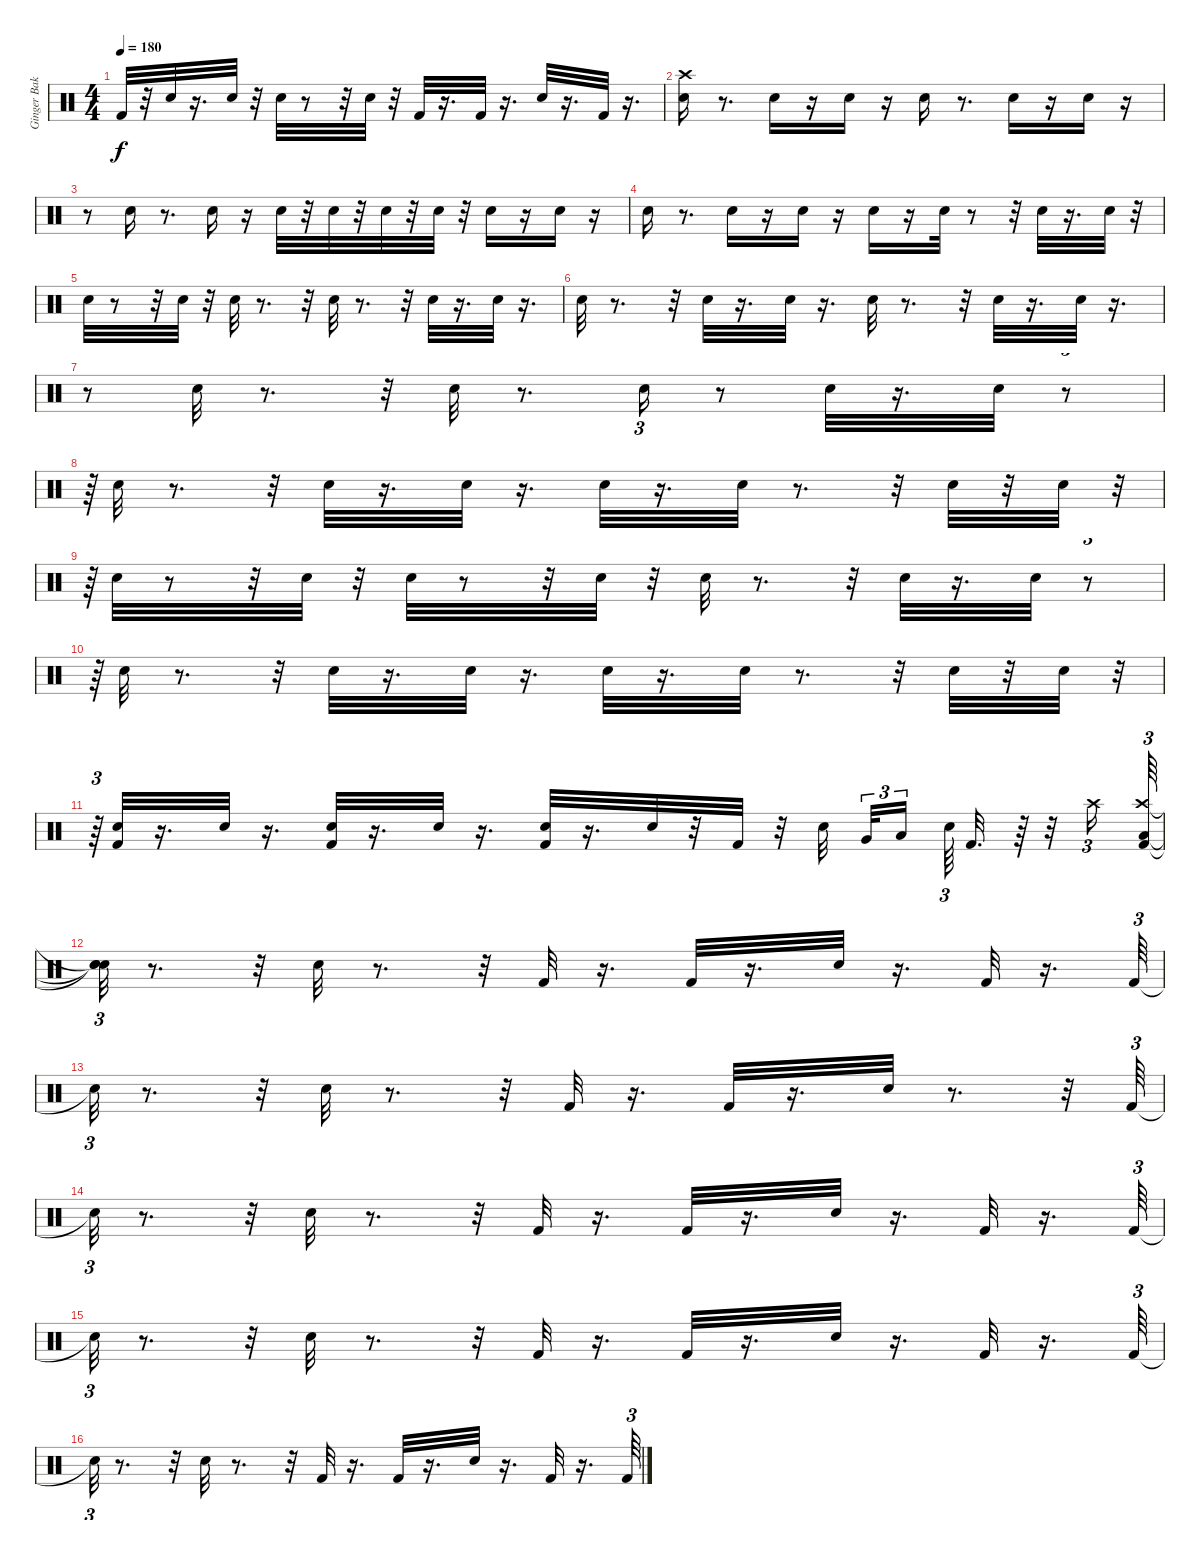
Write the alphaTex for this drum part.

\track ("Ginger Baker" "Ginger Bak") {instrument percussion}
\staff {score}
\articulation defaults
\ts (4 4)
\tempo 180
\clef neutral
\ks c "Kick (hit) 2".32{dy f}
r.32 "Snare (hit) 2".32 r.16{d} "Snare (hit) 2".32 r.32 "Snare (hit) 2".32 r.8 r.32 "Snare (hit) 2".32 r.32 "Kick (hit) 2".32 r.16{d} "Kick (hit) 2".32 r.16{d} "Snare (hit) 2".32 r.16{d} "Kick (hit) 2".32 r.16{d} |
("Snare (hit) 2" "Crash high (hit)").16 r.8{d} "Snare (hit) 2".16 r.16 "Snare (hit) 2".16 r.16 "Snare (hit) 2".16 r.8{d} "Snare (hit) 2".16 r.16 "Snare (hit) 2".16 r.16 |
r.8 "Snare (hit) 2".16 r.8{d} "Snare (hit) 2".16 r.16 "Snare (hit) 2".32 r.32 "Snare (hit) 2".32 r.32 "Snare (hit) 2".32 r.32 "Snare (hit) 2".32 r.32 "Snare (hit) 2".16 r.16 "Snare (hit) 2".16 r.16 |
"Snare (hit) 2".16 r.8{d} "Snare (hit) 2".16 r.16 "Snare (hit) 2".16 r.16 "Snare (hit) 2".16 r.16 "Snare (hit) 2".32 r.8 r.32 "Snare (hit) 2".32 r.16{d} "Snare (hit) 2".32 r.32 |
"Snare (hit) 2".32 r.8 r.32 "Snare (hit) 2".32 r.32 "Snare (hit) 2".32 r.8{d} r.32 "Snare (hit) 2".32 r.8{d} r.32 "Snare (hit) 2".32 r.16{d} "Snare (hit) 2".32 r.16{d} |
"Snare (hit) 2".32 r.8{d} r.32 "Snare (hit) 2".32 r.16{d} "Snare (hit) 2".32 r.16{d} "Snare (hit) 2".32 r.8{d} r.32 "Snare (hit) 2".32 r.16{d} "Snare (hit) 2".32 r.16{d} |
r.8 "Snare (hit) 2".32 r.8{d} r.32 "Snare (hit) 2".32 r.8{d} "Snare (hit) 2".16{tu (3 2)} r.8 "Snare (hit) 2".32 r.16{d} "Snare (hit) 2".32 r.8{tu (3 2)} |
r.64{tu (3 2)} "Snare (hit) 2".32 r.8{d} r.32 "Snare (hit) 2".32 r.16{d} "Snare (hit) 2".32 r.16{d} "Snare (hit) 2".32 r.16{d} "Snare (hit) 2".32 r.8{d} r.32 "Snare (hit) 2".32 r.32 "Snare (hit) 2".32 r.32{tu (3 2)} |
r.64{tu (3 2)} "Snare (hit) 2".32 r.8 r.32 "Snare (hit) 2".32 r.32 "Snare (hit) 2".32 r.8 r.32 "Snare (hit) 2".32 r.32 "Snare (hit) 2".32 r.8{d} r.32 "Snare (hit) 2".32 r.16{d} "Snare (hit) 2".32 r.8{tu (3 2)} |
r.64{tu (3 2)} "Snare (hit) 2".32 r.8{d} r.32 "Snare (hit) 2".32 r.16{d} "Snare (hit) 2".32 r.16{d} "Snare (hit) 2".32 r.16{d} "Snare (hit) 2".32 r.8{d} r.32 "Snare (hit) 2".32 r.32 "Snare (hit) 2".32 r.32{tu (3 2)} |
r.64{tu (3 2)} ("Kick (hit) 2" "Snare (hit) 2").32 r.16{d} "Snare (hit) 2".32 r.16{d} ("Kick (hit) 2" "Snare (hit) 2").32 r.16{d} "Snare (hit) 2".32 r.16{d} ("Kick (hit) 2" "Snare (hit) 2").32 r.16{d} "Snare (hit) 2".32 r.32 "Kick (hit) 2".32 r.32 "Snare (hit) 2".32 "Very Low Tom (hit)".32{tu (3 2)} "Low Floor Tom (hit)".16{tu (3 2)} "Electric Snare (hit)".64{tu (3 2)} "Kick (hit) 2".32{d} r.64 r.32 "Crash high (hit)".16{tu (3 2)} ("Crash high (hit)" "Low Floor Tom (hit)" "Kick (hit) 2").64{tu (3 2)} |
("Snare (hit)"{t} "Snare (hit)"{t} "Snare (hit)"{t}).32{tu (3 2)} r.8{d} r.32 "Snare (hit) 2".32 r.8{d} r.32 "Kick (hit) 2".32 r.16{d} "Kick (hit) 2".32 r.16{d} "Snare (hit) 2".32 r.16{d} "Kick (hit) 2".32 r.16{d} "Kick (hit) 2".64{tu (3 2)} |
"Snare (hit)"{t}.32{tu (3 2)} r.8{d} r.32 "Snare (hit) 2".32 r.8{d} r.32 "Kick (hit) 2".32 r.16{d} "Kick (hit) 2".32 r.16{d} "Snare (hit) 2".32 r.8{d} r.32 "Kick (hit) 2".64{tu (3 2)} |
"Snare (hit)"{t}.32{tu (3 2)} r.8{d} r.32 "Snare (hit) 2".32 r.8{d} r.32 "Kick (hit) 2".32 r.16{d} "Kick (hit) 2".32 r.16{d} "Snare (hit) 2".32 r.16{d} "Kick (hit) 2".32 r.16{d} "Kick (hit) 2".64{tu (3 2)} |
"Snare (hit)"{t}.32{tu (3 2)} r.8{d} r.32 "Snare (hit) 2".32 r.8{d} r.32 "Kick (hit) 2".32 r.16{d} "Kick (hit) 2".32 r.16{d} "Snare (hit) 2".32 r.16{d} "Kick (hit) 2".32 r.16{d} "Kick (hit) 2".64{tu (3 2)} |
"Snare (hit)"{t}.32{tu (3 2)} r.8{d} r.32 "Snare (hit) 2".32 r.8{d} r.32 "Kick (hit) 2".32 r.16{d} "Kick (hit) 2".32 r.16{d} "Snare (hit) 2".32 r.16{d} "Kick (hit) 2".32 r.16{d} "Kick (hit) 2".64{tu (3 2)}
